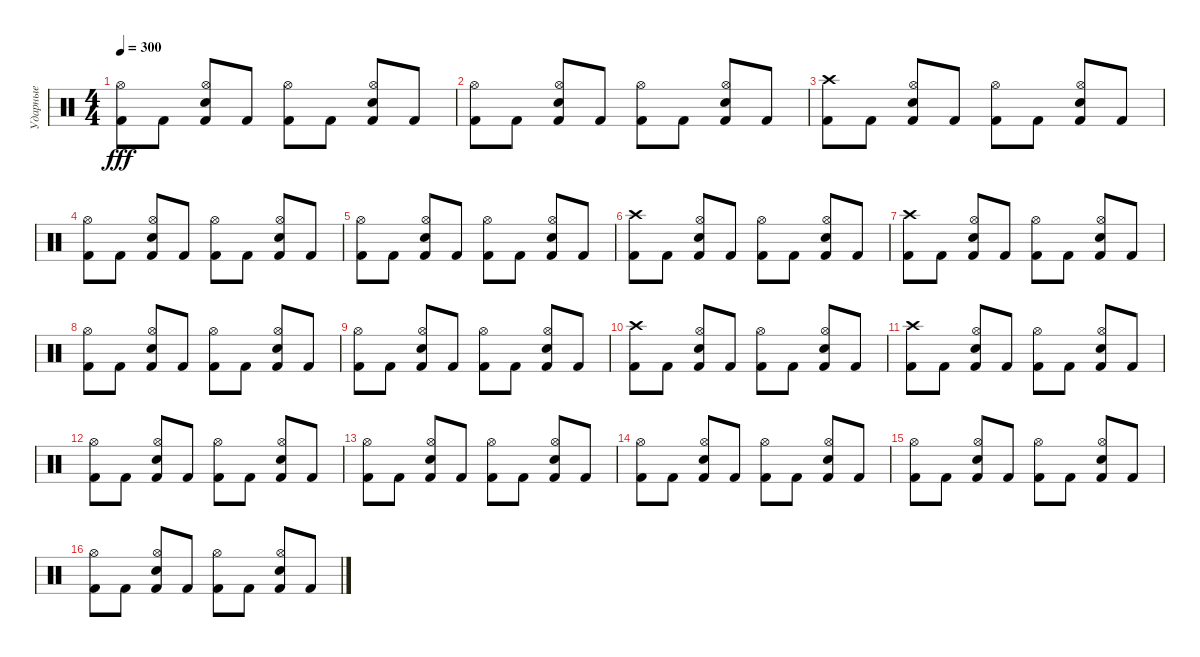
\track ("Ударные" "Ударные") {instrument percussion}
\staff {score}
\articulation defaults
\ts (4 4)
\tempo 300
\clef neutral
\ks c
("Kick (hit) 2" "Hi-Hat (open)").8{dy fff} "Kick (hit) 2".8 ("Kick (hit) 2" "Snare (hit) 2" "Hi-Hat (open)").8 "Kick (hit) 2".8 ("Kick (hit) 2" "Hi-Hat (open)").8 "Kick (hit) 2".8 ("Kick (hit) 2" "Snare (hit) 2" "Hi-Hat (open)").8 "Kick (hit) 2".8 |
("Kick (hit) 2" "Hi-Hat (open)").8 "Kick (hit) 2".8 ("Kick (hit) 2" "Snare (hit) 2" "Hi-Hat (open)").8 "Kick (hit) 2".8 ("Kick (hit) 2" "Hi-Hat (open)").8 "Kick (hit) 2".8 ("Kick (hit) 2" "Snare (hit) 2" "Hi-Hat (open)").8 "Kick (hit) 2".8 |
("Kick (hit) 2" "Crash high (hit)").8 "Kick (hit) 2".8 ("Kick (hit) 2" "Snare (hit) 2" "Hi-Hat (open)").8 "Kick (hit) 2".8 ("Kick (hit) 2" "Hi-Hat (open)").8 "Kick (hit) 2".8 ("Kick (hit) 2" "Snare (hit) 2" "Hi-Hat (open)").8 "Kick (hit) 2".8 |
("Kick (hit) 2" "Hi-Hat (open)").8 "Kick (hit) 2".8 ("Kick (hit) 2" "Snare (hit) 2" "Hi-Hat (open)").8 "Kick (hit) 2".8 ("Kick (hit) 2" "Hi-Hat (open)").8 "Kick (hit) 2".8 ("Kick (hit) 2" "Snare (hit) 2" "Hi-Hat (open)").8 "Kick (hit) 2".8 |
("Kick (hit) 2" "Hi-Hat (open)").8 "Kick (hit) 2".8 ("Kick (hit) 2" "Snare (hit) 2" "Hi-Hat (open)").8 "Kick (hit) 2".8 ("Kick (hit) 2" "Hi-Hat (open)").8 "Kick (hit) 2".8 ("Kick (hit) 2" "Snare (hit) 2" "Hi-Hat (open)").8 "Kick (hit) 2".8 |
("Kick (hit) 2" "Crash high (hit)").8 "Kick (hit) 2".8 ("Kick (hit) 2" "Snare (hit) 2" "Hi-Hat (open)").8 "Kick (hit) 2".8 ("Kick (hit) 2" "Hi-Hat (open)").8 "Kick (hit) 2".8 ("Kick (hit) 2" "Snare (hit) 2" "Hi-Hat (open)").8 "Kick (hit) 2".8 |
("Kick (hit) 2" "Crash high (hit)").8 "Kick (hit) 2".8 ("Kick (hit) 2" "Snare (hit) 2" "Hi-Hat (open)").8 "Kick (hit) 2".8 ("Kick (hit) 2" "Hi-Hat (open)").8 "Kick (hit) 2".8 ("Kick (hit) 2" "Snare (hit) 2" "Hi-Hat (open)").8 "Kick (hit) 2".8 |
("Kick (hit) 2" "Hi-Hat (open)").8 "Kick (hit) 2".8 ("Kick (hit) 2" "Snare (hit) 2" "Hi-Hat (open)").8 "Kick (hit) 2".8 ("Kick (hit) 2" "Hi-Hat (open)").8 "Kick (hit) 2".8 ("Kick (hit) 2" "Snare (hit) 2" "Hi-Hat (open)").8 "Kick (hit) 2".8 |
("Kick (hit) 2" "Hi-Hat (open)").8 "Kick (hit) 2".8 ("Kick (hit) 2" "Snare (hit) 2" "Hi-Hat (open)").8 "Kick (hit) 2".8 ("Kick (hit) 2" "Hi-Hat (open)").8 "Kick (hit) 2".8 ("Kick (hit) 2" "Snare (hit) 2" "Hi-Hat (open)").8 "Kick (hit) 2".8 |
("Kick (hit) 2" "Crash high (hit)").8 "Kick (hit) 2".8 ("Kick (hit) 2" "Snare (hit) 2" "Hi-Hat (open)").8 "Kick (hit) 2".8 ("Kick (hit) 2" "Hi-Hat (open)").8 "Kick (hit) 2".8 ("Kick (hit) 2" "Snare (hit) 2" "Hi-Hat (open)").8 "Kick (hit) 2".8 |
("Kick (hit) 2" "Crash high (hit)").8 "Kick (hit) 2".8 ("Kick (hit) 2" "Snare (hit) 2" "Hi-Hat (open)").8 "Kick (hit) 2".8 ("Kick (hit) 2" "Hi-Hat (open)").8 "Kick (hit) 2".8 ("Kick (hit) 2" "Snare (hit) 2" "Hi-Hat (open)").8 "Kick (hit) 2".8 |
("Kick (hit) 2" "Hi-Hat (open)").8 "Kick (hit) 2".8 ("Kick (hit) 2" "Snare (hit) 2" "Hi-Hat (open)").8 "Kick (hit) 2".8 ("Kick (hit) 2" "Hi-Hat (open)").8 "Kick (hit) 2".8 ("Kick (hit) 2" "Snare (hit) 2" "Hi-Hat (open)").8 "Kick (hit) 2".8 |
("Kick (hit) 2" "Hi-Hat (open)").8 "Kick (hit) 2".8 ("Kick (hit) 2" "Snare (hit) 2" "Hi-Hat (open)").8 "Kick (hit) 2".8 ("Kick (hit) 2" "Hi-Hat (open)").8 "Kick (hit) 2".8 ("Kick (hit) 2" "Snare (hit) 2" "Hi-Hat (open)").8 "Kick (hit) 2".8 |
("Kick (hit) 2" "Hi-Hat (open)").8 "Kick (hit) 2".8 ("Kick (hit) 2" "Snare (hit) 2" "Hi-Hat (open)").8 "Kick (hit) 2".8 ("Kick (hit) 2" "Hi-Hat (open)").8 "Kick (hit) 2".8 ("Kick (hit) 2" "Snare (hit) 2" "Hi-Hat (open)").8 "Kick (hit) 2".8 |
("Kick (hit) 2" "Hi-Hat (open)").8 "Kick (hit) 2".8 ("Kick (hit) 2" "Snare (hit) 2" "Hi-Hat (open)").8 "Kick (hit) 2".8 ("Kick (hit) 2" "Hi-Hat (open)").8 "Kick (hit) 2".8 ("Kick (hit) 2" "Snare (hit) 2" "Hi-Hat (open)").8 "Kick (hit) 2".8 |
("Kick (hit) 2" "Hi-Hat (open)").8 "Kick (hit) 2".8 ("Kick (hit) 2" "Snare (hit) 2" "Hi-Hat (open)").8 "Kick (hit) 2".8 ("Kick (hit) 2" "Hi-Hat (open)").8 "Kick (hit) 2".8 ("Kick (hit) 2" "Snare (hit) 2" "Hi-Hat (open)").8 "Kick (hit) 2".8
